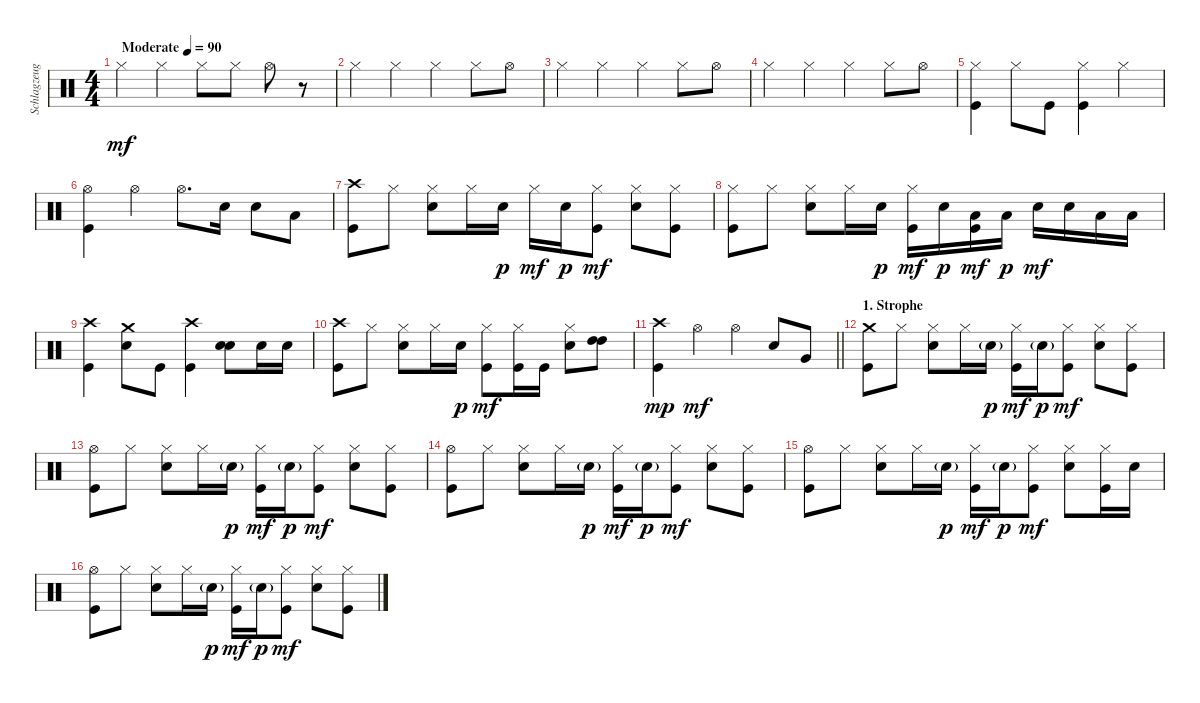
\track ("Schlagzeug" "Schlagzeug") {instrument percussion}
\staff {score}
\articulation defaults
\ts (4 4)
\tempo (90 "Moderate")
\clef neutral
\ks c "Hi-Hat (closed)".4{dy mf} "Hi-Hat (closed)".4 "Hi-Hat (closed)".8 "Hi-Hat (closed)".8 "Hi-Hat (open)".8
r.8 |
"Hi-Hat (closed)".4 "Hi-Hat (closed)".4 "Hi-Hat (closed)".4 "Hi-Hat (closed)".8 "Hi-Hat (open)".8 |
"Hi-Hat (closed)".4 "Hi-Hat (closed)".4 "Hi-Hat (closed)".4 "Hi-Hat (closed)".8 "Hi-Hat (open)".8 |
"Hi-Hat (closed)".4 "Hi-Hat (closed)".4 "Hi-Hat (closed)".4 "Hi-Hat (closed)".8 "Hi-Hat (open)".8 |
("Hi-Hat (closed)" "Kick (hit)").4 "Hi-Hat (closed)".8 "Kick (hit)".8 ("Hi-Hat (closed)" "Kick (hit)").4 "Hi-Hat (closed)".4 |
("Hi-Hat (open)" "Kick (hit)").4 "Hi-Hat (open)".4 "Hi-Hat (open)".8{d} "Snare (hit) 2".16 "Snare (hit) 2".8 "Low Tom (hit)".8 |
("Crash high (hit)" "Kick (hit)").8 "Hi-Hat (closed)".8 ("Hi-Hat (closed)" "Snare (hit) 2").8 "Hi-Hat (closed)".16 "Snare (hit) 2".16{dy p} "Hi-Hat (closed)".16{dy mf} "Snare (hit) 2".16{dy p} ("Hi-Hat (closed)" "Kick (hit)").8{dy mf} ("Hi-Hat (closed)" "Snare (hit) 2").8 ("Hi-Hat (closed)" "Kick (hit)").8 |
("Hi-Hat (closed)" "Kick (hit)").8 "Hi-Hat (closed)".8 ("Hi-Hat (closed)" "Snare (hit) 2").8 "Hi-Hat (closed)".16 "Snare (hit) 2".16{dy p} ("Hi-Hat (closed)" "Kick (hit)").16{dy mf} "Snare (hit) 2".16{dy p} ("Low Tom (hit)" "Kick (hit)").16{dy mf} "Low Tom (hit)".16{dy p} "Snare (hit) 2".16{dy mf} "Snare (hit) 2".16 "Low Tom (hit)".16 "Low Tom (hit)".16 |
("Crash high (hit)" "Kick (hit)").4 ("Crash medium (hit)" "Snare (hit) 2").8 "Kick (hit)".8 ("Crash high (hit)" "Kick (hit)").4 ("Snare (hit) 2" "Snare (hit) 2").8 "Snare (hit) 2".16 "Snare (hit) 2".16 |
("Crash high (hit)" "Kick (hit)").8 "Hi-Hat (closed)".8 ("Hi-Hat (closed)" "Snare (hit) 2").8 "Hi-Hat (closed)".16 "Snare (hit) 2".16{dy p} ("Hi-Hat (closed)" "Kick (hit)").8{dy mf} ("Hi-Hat (closed)" "Kick (hit)").16 "Kick (hit)".16 ("Hi-Hat (closed)" "Snare (hit) 2").8 ("High Tom (hit)" "High Tom (hit)").8 |
\barLineRight lightlight
("Crash high (hit)" "Kick (hit)").4{dy mp} "Hi-Hat (open)".4{dy mf} "Hi-Hat (open)".4 "Snare (hit) 2".8 "Very Low Tom (hit)".8 |
\section ("" "1. Strophe")
("Crash medium (hit)" "Kick (hit)").8 "Hi-Hat (closed)".8 ("Hi-Hat (closed)" "Snare (hit) 2").8 "Hi-Hat (closed)".16 "Snare (hit) 2"{g}.16{dy p} ("Hi-Hat (closed)" "Kick (hit)").16{dy mf} "Snare (hit) 2"{g}.16{dy p} ("Hi-Hat (closed)" "Kick (hit)").8{dy mf} ("Hi-Hat (closed)" "Snare (hit) 2").8 ("Hi-Hat (closed)" "Kick (hit)").8 |
("Hi-Hat (open)" "Kick (hit)").8 "Hi-Hat (closed)".8 ("Hi-Hat (closed)" "Snare (hit) 2").8 "Hi-Hat (closed)".16 "Snare (hit) 2"{g}.16{dy p} ("Hi-Hat (closed)" "Kick (hit)").16{dy mf} "Snare (hit) 2"{g}.16{dy p} ("Hi-Hat (closed)" "Kick (hit)").8{dy mf} ("Hi-Hat (closed)" "Snare (hit) 2").8 ("Hi-Hat (closed)" "Kick (hit)").8 |
("Hi-Hat (open)" "Kick (hit)").8 "Hi-Hat (closed)".8 ("Hi-Hat (closed)" "Snare (hit) 2").8 "Hi-Hat (closed)".16 "Snare (hit) 2"{g}.16{dy p} ("Hi-Hat (closed)" "Kick (hit)").16{dy mf} "Snare (hit) 2"{g}.16{dy p} ("Hi-Hat (closed)" "Kick (hit)").8{dy mf} ("Hi-Hat (closed)" "Snare (hit) 2").8 ("Hi-Hat (closed)" "Kick (hit)").8 |
("Hi-Hat (open)" "Kick (hit)").8 "Hi-Hat (closed)".8 ("Hi-Hat (closed)" "Snare (hit) 2").8 "Hi-Hat (closed)".16 "Snare (hit) 2"{g}.16{dy p} ("Hi-Hat (closed)" "Kick (hit)").16{dy mf} "Snare (hit) 2"{g}.16{dy p} ("Hi-Hat (closed)" "Kick (hit)").8{dy mf} ("Hi-Hat (closed)" "Snare (hit) 2").8 ("Hi-Hat (closed)" "Kick (hit)").16 "Snare (hit) 2".16 |
("Hi-Hat (open)" "Kick (hit)").8 "Hi-Hat (closed)".8 ("Hi-Hat (closed)" "Snare (hit) 2").8 "Hi-Hat (closed)".16 "Snare (hit) 2"{g}.16{dy p} ("Hi-Hat (closed)" "Kick (hit)").16{dy mf} "Snare (hit) 2"{g}.16{dy p} ("Hi-Hat (closed)" "Kick (hit)").8{dy mf} ("Hi-Hat (closed)" "Snare (hit) 2").8 ("Hi-Hat (closed)" "Kick (hit)").8
